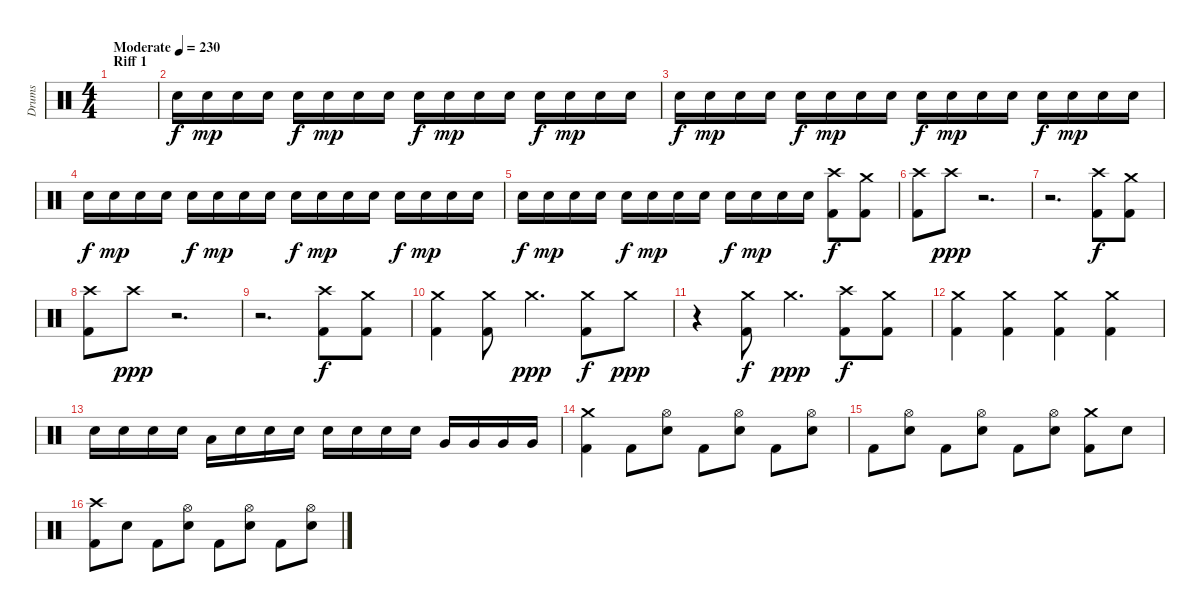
\track ("Drums" "Drums") {instrument percussion}
\staff {score}
\articulation defaults
\ts (4 4)
\section ("" "Riff 1")
\tempo (230 "Moderate")
\clef neutral
\ks c
|
"Electric Snare (hit)".16 "Electric Snare (hit)".16{dy mp} "Electric Snare (hit)".16 "Electric Snare (hit)".16 "Electric Snare (hit)".16{dy f} "Electric Snare (hit)".16{dy mp} "Electric Snare (hit)".16 "Electric Snare (hit)".16 "Electric Snare (hit)".16{dy f} "Electric Snare (hit)".16{dy mp} "Electric Snare (hit)".16 "Electric Snare (hit)".16 "Electric Snare (hit)".16{dy f} "Electric Snare (hit)".16{dy mp} "Electric Snare (hit)".16 "Electric Snare (hit)".16 |
"Electric Snare (hit)".16{dy f} "Electric Snare (hit)".16{dy mp} "Electric Snare (hit)".16 "Electric Snare (hit)".16 "Electric Snare (hit)".16{dy f} "Electric Snare (hit)".16{dy mp} "Electric Snare (hit)".16 "Electric Snare (hit)".16 "Electric Snare (hit)".16{dy f} "Electric Snare (hit)".16{dy mp} "Electric Snare (hit)".16 "Electric Snare (hit)".16 "Electric Snare (hit)".16{dy f} "Electric Snare (hit)".16{dy mp} "Electric Snare (hit)".16 "Electric Snare (hit)".16 |
"Electric Snare (hit)".16{dy f} "Electric Snare (hit)".16{dy mp} "Electric Snare (hit)".16 "Electric Snare (hit)".16 "Electric Snare (hit)".16{dy f} "Electric Snare (hit)".16{dy mp} "Electric Snare (hit)".16 "Electric Snare (hit)".16 "Electric Snare (hit)".16{dy f} "Electric Snare (hit)".16{dy mp} "Electric Snare (hit)".16 "Electric Snare (hit)".16 "Electric Snare (hit)".16{dy f} "Electric Snare (hit)".16{dy mp} "Electric Snare (hit)".16 "Electric Snare (hit)".16 |
"Electric Snare (hit)".16{dy f} "Electric Snare (hit)".16{dy mp} "Electric Snare (hit)".16 "Electric Snare (hit)".16 "Electric Snare (hit)".16{dy f} "Electric Snare (hit)".16{dy mp} "Electric Snare (hit)".16 "Electric Snare (hit)".16 "Electric Snare (hit)".16{dy f} "Electric Snare (hit)".16{dy mp} "Electric Snare (hit)".16 "Electric Snare (hit)".16 ("Kick (hit) 2" "Crash high (hit)").8{dy f} ("Kick (hit) 2" "Crash medium (hit)").8 |
("Crash high (hit)" "Kick (hit) 2").8 "Crash high (hit)".8{dy ppp} r.2{d} |
r.2{d} ("Kick (hit) 2" "Crash high (hit)").8{dy f} ("Kick (hit) 2" "Crash medium (hit)").8 |
("Crash high (hit)" "Kick (hit) 2").8 "Crash high (hit)".8{dy ppp} r.2{d} |
r.2{d} ("Kick (hit) 2" "Crash high (hit)").8{dy f} ("Kick (hit) 2" "Crash medium (hit)").8 |
("Kick (hit) 2" "Crash medium (hit)").4 ("Kick (hit) 2" "Crash medium (hit)").8 "Crash medium (hit)".4{d dy ppp} ("Kick (hit) 2" "Crash medium (hit)").8{dy f} "Crash medium (hit)".8{dy ppp} |
r.4 ("Kick (hit) 2" "Crash medium (hit)").8{dy f} "Crash medium (hit)".4{d dy ppp} ("Kick (hit) 2" "Crash high (hit)").8{dy f} ("Kick (hit) 2" "Crash medium (hit)").8 |
("Kick (hit) 2" "Crash medium (hit)").4 ("Kick (hit) 2" "Crash medium (hit)").4 ("Kick (hit) 2" "Crash medium (hit)").4 ("Kick (hit) 2" "Crash medium (hit)").4 |
"Electric Snare (hit)".16 "Electric Snare (hit)".16 "Electric Snare (hit)".16 "Electric Snare (hit)".16 "Low Tom (hit)".16 "Electric Snare (hit)".16 "Electric Snare (hit)".16 "Electric Snare (hit)".16 "Electric Snare (hit)".16 "Electric Snare (hit)".16 "Electric Snare (hit)".16 "Electric Snare (hit)".16 "Very Low Tom (hit)".16 "Very Low Tom (hit)".16 "Very Low Tom (hit)".16 "Very Low Tom (hit)".16 |
("Crash medium (hit)" "Kick (hit) 2").4 "Kick (hit) 2".8 ("Hi-Hat (open)" "Electric Snare (hit)").8 "Kick (hit) 2".8 ("Hi-Hat (open)" "Electric Snare (hit)").8 "Kick (hit) 2".8 ("Hi-Hat (open)" "Electric Snare (hit)").8 |
"Kick (hit) 2".8 ("Hi-Hat (open)" "Electric Snare (hit)").8 "Kick (hit) 2".8 ("Hi-Hat (open)" "Electric Snare (hit)").8 "Kick (hit) 2".8 ("Hi-Hat (open)" "Electric Snare (hit)").8 ("Crash medium (hit)" "Kick (hit) 2").8 "Electric Snare (hit)".8 |
("Kick (hit) 2" "Crash high (hit)").8 "Electric Snare (hit)".8 "Kick (hit) 2".8 ("Electric Snare (hit)" "Hi-Hat (open)").8 "Kick (hit) 2".8 ("Electric Snare (hit)" "Hi-Hat (open)").8 "Kick (hit) 2".8 ("Electric Snare (hit)" "Hi-Hat (open)").8
